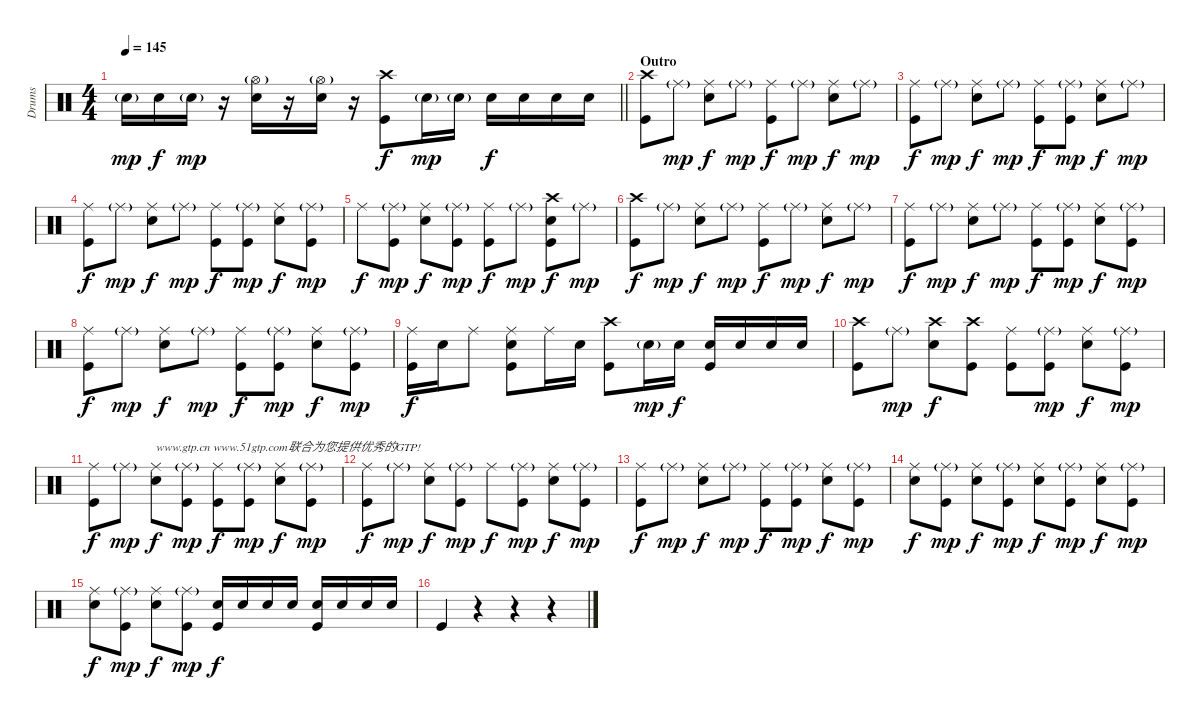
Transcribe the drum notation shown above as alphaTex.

\track ("Drums" "Drums") {instrument percussion}
\staff {score}
\articulation defaults
\ts (4 4)
\tempo 145
\clef neutral
\barLineRight lightlight
\ks c "Snare (hit) 2"{g}.16{dy mp} "Snare (hit) 2".16{dy f} "Snare (hit) 2"{g}.16{dy mp}
r.16 ("Hi-Hat (open)"{g} "Snare (hit) 2").16 r.16 ("Hi-Hat (open)"{g} "Snare (hit) 2").16 r.16 ("Crash high (hit)" "Kick (hit)").8{dy f} "Snare (hit) 2"{g}.16{dy mp} "Snare (hit) 2"{g}.16 "Snare (hit) 2".16{dy f} "Snare (hit) 2".16 "Snare (hit) 2".16 "Snare (hit) 2".16 |
\section ("" "Outro")
("Crash high (hit)" "Kick (hit)").8 "Ride (middle)"{g}.8{dy mp} ("Ride (middle)" "Snare (hit) 2").8{dy f} "Ride (middle)"{g}.8{dy mp} ("Ride (middle)" "Kick (hit)").8{dy f} "Ride (middle)"{g}.8{dy mp} ("Ride (middle)" "Snare (hit) 2").8{dy f} "Ride (middle)"{g}.8{dy mp} |
("Ride (middle)" "Kick (hit)").8{dy f} "Ride (middle)"{g}.8{dy mp} ("Ride (middle)" "Snare (hit) 2").8{dy f} "Ride (middle)"{g}.8{dy mp} ("Ride (middle)" "Kick (hit)").8{dy f} ("Ride (middle)"{g} "Kick (hit)").8{dy mp} ("Ride (middle)" "Snare (hit) 2").8{dy f} "Ride (middle)"{g}.8{dy mp} |
("Ride (middle)" "Kick (hit)").8{dy f} "Ride (middle)"{g}.8{dy mp} ("Ride (middle)" "Snare (hit) 2").8{dy f} "Ride (middle)"{g}.8{dy mp} ("Ride (middle)" "Kick (hit)").8{dy f} ("Ride (middle)"{g} "Kick (hit)").8{dy mp} ("Ride (middle)" "Snare (hit) 2").8{dy f} ("Ride (middle)"{g} "Kick (hit)").8{dy mp} |
"Ride (middle)".8{dy f} ("Ride (middle)"{g} "Kick (hit)").8{dy mp} ("Ride (middle)" "Snare (hit) 2").8{dy f} ("Ride (middle)"{g} "Kick (hit)").8{dy mp} ("Ride (middle)" "Kick (hit)").8{dy f} "Ride (middle)"{g}.8{dy mp} ("Crash high (hit)" "Snare (hit) 2" "Kick (hit)").8{dy f} "Ride (middle)"{g}.8{dy mp} |
("Crash high (hit)" "Kick (hit)").8{dy f} "Ride (middle)"{g}.8{dy mp} ("Ride (middle)" "Snare (hit) 2").8{dy f} "Ride (middle)"{g}.8{dy mp} ("Ride (middle)" "Kick (hit)").8{dy f} "Ride (middle)"{g}.8{dy mp} ("Ride (middle)" "Snare (hit) 2").8{dy f} "Ride (middle)"{g}.8{dy mp} |
("Ride (middle)" "Kick (hit)").8{dy f} "Ride (middle)"{g}.8{dy mp} ("Ride (middle)" "Snare (hit) 2").8{dy f} "Ride (middle)"{g}.8{dy mp} ("Ride (middle)" "Kick (hit)").8{dy f} ("Ride (middle)"{g} "Kick (hit)").8{dy mp} ("Ride (middle)" "Snare (hit) 2").8{dy f} ("Ride (middle)"{g} "Kick (hit)").8{dy mp} |
("Ride (middle)" "Kick (hit)").8{dy f} "Ride (middle)"{g}.8{dy mp} ("Ride (middle)" "Snare (hit) 2").8{dy f} "Ride (middle)"{g}.8{dy mp} ("Ride (middle)" "Kick (hit)").8{dy f} ("Ride (middle)"{g} "Kick (hit)").8{dy mp} ("Ride (middle)" "Snare (hit) 2").8{dy f} ("Ride (middle)"{g} "Kick (hit)").8{dy mp} |
("Ride (middle)" "Kick (hit)").16{dy f} "Snare (hit) 2".16 "Ride (middle)".8 ("Ride (middle)" "Snare (hit) 2" "Kick (hit)").8 "Ride (middle)".16 "Snare (hit) 2".16 ("Crash high (hit)" "Kick (hit)").8 "Snare (hit) 2"{g}.16{dy mp} "Snare (hit) 2".16{dy f} ("Snare (hit) 2" "Kick (hit)").16 "Snare (hit) 2".16 "Snare (hit) 2".16 "Snare (hit) 2".16 |
("Crash high (hit)" "Kick (hit)").8 "Ride (middle)"{g}.8{dy mp} ("Crash high (hit)" "Snare (hit) 2").8{dy f} ("Crash high (hit)" "Kick (hit)").8 ("Ride (middle)" "Kick (hit)").8 ("Ride (middle)"{g} "Kick (hit)").8{dy mp} ("Ride (middle)" "Snare (hit) 2").8{dy f} ("Ride (middle)"{g} "Kick (hit)").8{dy mp} |
("Ride (middle)" "Kick (hit)").8{dy f} "Ride (middle)"{g}.8{dy mp} ("Ride (middle)" "Snare (hit) 2").8{txt "www.gtp.cn www.51gtp.com联合为您提供优秀的GTP!" dy f} ("Ride (middle)"{g} "Kick (hit)").8{dy mp} ("Ride (middle)" "Kick (hit)").8{dy f} ("Ride (middle)"{g} "Kick (hit)").8{dy mp} ("Ride (middle)" "Snare (hit) 2").8{dy f} ("Ride (middle)"{g} "Kick (hit)").8{dy mp} |
("Ride (middle)" "Kick (hit)").8{dy f} "Ride (middle)"{g}.8{dy mp} ("Ride (middle)" "Snare (hit) 2").8{dy f} ("Ride (middle)"{g} "Kick (hit)").8{dy mp} "Ride (middle)".8{dy f} ("Ride (middle)"{g} "Kick (hit)").8{dy mp} ("Ride (middle)" "Snare (hit) 2").8{dy f} ("Ride (middle)"{g} "Kick (hit)").8{dy mp} |
("Ride (middle)" "Kick (hit)").8{dy f} "Ride (middle)"{g}.8{dy mp} ("Ride (middle)" "Snare (hit) 2").8{dy f} "Ride (middle)"{g}.8{dy mp} ("Ride (middle)" "Kick (hit)").8{dy f} ("Ride (middle)"{g} "Kick (hit)").8{dy mp} ("Ride (middle)" "Snare (hit) 2").8{dy f} ("Ride (middle)"{g} "Kick (hit)").8{dy mp} |
("Ride (middle)" "Snare (hit) 2").8{dy f} ("Ride (middle)"{g} "Kick (hit)").8{dy mp} ("Ride (middle)" "Snare (hit) 2").8{dy f} ("Ride (middle)"{g} "Kick (hit)").8{dy mp} ("Ride (middle)" "Snare (hit) 2").8{dy f} ("Ride (middle)"{g} "Kick (hit)").8{dy mp} ("Ride (middle)" "Snare (hit) 2").8{dy f} ("Ride (middle)"{g} "Kick (hit)").8{dy mp} |
("Ride (middle)" "Snare (hit) 2").8{dy f} ("Ride (middle)"{g} "Kick (hit)").8{dy mp} ("Ride (middle)" "Snare (hit) 2").8{dy f} ("Ride (middle)"{g} "Kick (hit)").8{dy mp} ("Snare (hit) 2" "Kick (hit)").16{dy f} "Snare (hit) 2".16 "Snare (hit) 2".16 "Snare (hit) 2".16 ("Snare (hit) 2" "Kick (hit)").16 "Snare (hit) 2".16 "Snare (hit) 2".16 "Snare (hit) 2".16 |
"Kick (hit)".4 r.4 r.4 r.4
